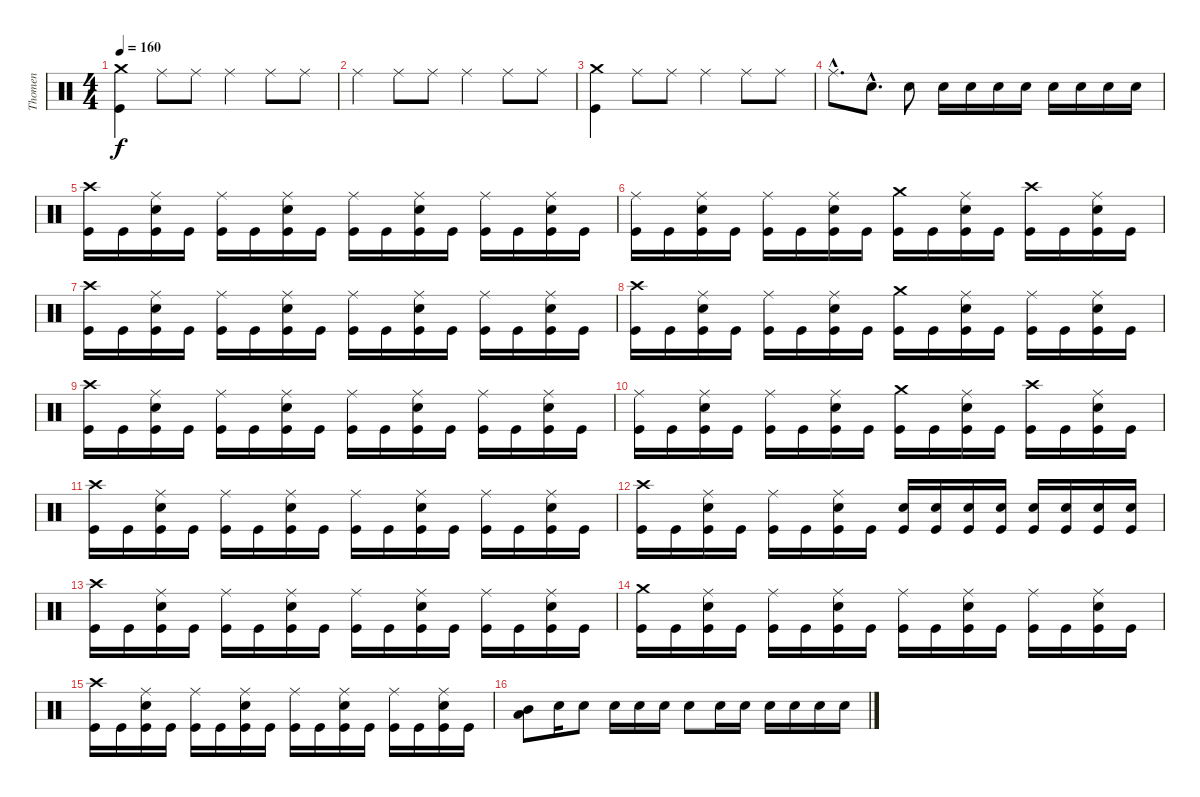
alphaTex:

\track ("Thomen" "Thomen") {instrument percussion}
\staff {score}
\articulation defaults
\ts (4 4)
\tempo 160
\clef neutral
\ks c
("Crash medium (hit)" "Kick (hit)").4{dy f} "Ride (middle)".8 "Ride (middle)".8 "Ride (middle)".4 "Ride (middle)".8 "Ride (middle)".8 |
"Ride (middle)".4 "Ride (middle)".8 "Ride (middle)".8 "Ride (middle)".4 "Ride (middle)".8 "Ride (middle)".8 |
("Crash medium (hit)" "Kick (hit)").4 "Ride (middle)".8 "Ride (middle)".8 "Ride (middle)".4 "Ride (middle)".8 "Ride (middle)".8 |
"Ride (middle)"{hac}.8{d} "Snare (hit) 2"{hac}.8{d} "Snare (hit) 2".8 "Snare (hit) 2".16 "Snare (hit) 2".16 "Snare (hit) 2".16 "Snare (hit) 2".16 "Snare (hit) 2".16 "Snare (hit) 2".16 "Snare (hit) 2".16 "Snare (hit) 2".16 |
("Crash high (hit)" "Kick (hit)").16 "Kick (hit)".16 ("Ride (middle)" "Snare (hit) 2" "Kick (hit)").16 "Kick (hit)".16 ("Ride (middle)" "Kick (hit)").16 "Kick (hit)".16 ("Ride (middle)" "Snare (hit) 2" "Kick (hit)").16 "Kick (hit)".16 ("Ride (middle)" "Kick (hit)").16 "Kick (hit)".16 ("Ride (middle)" "Snare (hit) 2" "Kick (hit)").16 "Kick (hit)".16 ("Ride (middle)" "Kick (hit)").16 "Kick (hit)".16 ("Ride (middle)" "Snare (hit) 2" "Kick (hit)").16 "Kick (hit)".16 |
("Ride (middle)" "Kick (hit)").16 "Kick (hit)".16 ("Ride (middle)" "Snare (hit) 2" "Kick (hit)").16 "Kick (hit)".16 ("Ride (middle)" "Kick (hit)").16 "Kick (hit)".16 ("Ride (middle)" "Snare (hit) 2" "Kick (hit)").16 "Kick (hit)".16 ("Crash medium (hit)" "Kick (hit)").16 "Kick (hit)".16 ("Ride (middle)" "Snare (hit) 2" "Kick (hit)").16 "Kick (hit)".16 ("Crash high (hit)" "Kick (hit)").16 "Kick (hit)".16 ("Ride (middle)" "Snare (hit) 2" "Kick (hit)").16 "Kick (hit)".16 |
("Crash high (hit)" "Kick (hit)").16 "Kick (hit)".16 ("Ride (middle)" "Snare (hit) 2" "Kick (hit)").16 "Kick (hit)".16 ("Ride (middle)" "Kick (hit)").16 "Kick (hit)".16 ("Ride (middle)" "Snare (hit) 2" "Kick (hit)").16 "Kick (hit)".16 ("Ride (middle)" "Kick (hit)").16 "Kick (hit)".16 ("Ride (middle)" "Snare (hit) 2" "Kick (hit)").16 "Kick (hit)".16 ("Ride (middle)" "Kick (hit)").16 "Kick (hit)".16 ("Ride (middle)" "Snare (hit) 2" "Kick (hit)").16 "Kick (hit)".16 |
("Crash high (hit)" "Kick (hit)").16 "Kick (hit)".16 ("Ride (middle)" "Snare (hit) 2" "Kick (hit)").16 "Kick (hit)".16 ("Ride (middle)" "Kick (hit)").16 "Kick (hit)".16 ("Ride (middle)" "Snare (hit) 2" "Kick (hit)").16 "Kick (hit)".16 ("Crash medium (hit)" "Kick (hit)").16 "Kick (hit)".16 ("Ride (middle)" "Snare (hit) 2" "Kick (hit)").16 "Kick (hit)".16 ("Ride (middle)" "Kick (hit)").16 "Kick (hit)".16 ("Ride (middle)" "Snare (hit) 2" "Kick (hit)").16 "Kick (hit)".16 |
("Crash high (hit)" "Kick (hit)").16 "Kick (hit)".16 ("Ride (middle)" "Snare (hit) 2" "Kick (hit)").16 "Kick (hit)".16 ("Ride (middle)" "Kick (hit)").16 "Kick (hit)".16 ("Ride (middle)" "Snare (hit) 2" "Kick (hit)").16 "Kick (hit)".16 ("Ride (middle)" "Kick (hit)").16 "Kick (hit)".16 ("Ride (middle)" "Snare (hit) 2" "Kick (hit)").16 "Kick (hit)".16 ("Ride (middle)" "Kick (hit)").16 "Kick (hit)".16 ("Ride (middle)" "Snare (hit) 2" "Kick (hit)").16 "Kick (hit)".16 |
("Ride (middle)" "Kick (hit)").16 "Kick (hit)".16 ("Ride (middle)" "Snare (hit) 2" "Kick (hit)").16 "Kick (hit)".16 ("Ride (middle)" "Kick (hit)").16 "Kick (hit)".16 ("Ride (middle)" "Snare (hit) 2" "Kick (hit)").16 "Kick (hit)".16 ("Crash medium (hit)" "Kick (hit)").16 "Kick (hit)".16 ("Ride (middle)" "Snare (hit) 2" "Kick (hit)").16 "Kick (hit)".16 ("Crash high (hit)" "Kick (hit)").16 "Kick (hit)".16 ("Ride (middle)" "Snare (hit) 2" "Kick (hit)").16 "Kick (hit)".16 |
("Crash high (hit)" "Kick (hit)").16 "Kick (hit)".16 ("Ride (middle)" "Snare (hit) 2" "Kick (hit)").16 "Kick (hit)".16 ("Ride (middle)" "Kick (hit)").16 "Kick (hit)".16 ("Ride (middle)" "Snare (hit) 2" "Kick (hit)").16 "Kick (hit)".16 ("Ride (middle)" "Kick (hit)").16 "Kick (hit)".16 ("Ride (middle)" "Snare (hit) 2" "Kick (hit)").16 "Kick (hit)".16 ("Ride (middle)" "Kick (hit)").16 "Kick (hit)".16 ("Ride (middle)" "Snare (hit) 2" "Kick (hit)").16 "Kick (hit)".16 |
("Crash high (hit)" "Kick (hit)").16 "Kick (hit)".16 ("Ride (middle)" "Snare (hit) 2" "Kick (hit)").16 "Kick (hit)".16 ("Ride (middle)" "Kick (hit)").16 "Kick (hit)".16 ("Ride (middle)" "Snare (hit) 2" "Kick (hit)").16 "Kick (hit)".16 ("Snare (hit) 2" "Kick (hit)").16 ("Snare (hit) 2" "Kick (hit)").16 ("Snare (hit) 2" "Kick (hit)").16 ("Snare (hit) 2" "Kick (hit)").16 ("Snare (hit) 2" "Kick (hit)").16 ("Snare (hit) 2" "Kick (hit)").16 ("Snare (hit) 2" "Kick (hit)").16 ("Snare (hit) 2" "Kick (hit)").16 |
("Crash high (hit)" "Kick (hit)").16 "Kick (hit)".16 ("Ride (middle)" "Snare (hit) 2" "Kick (hit)").16 "Kick (hit)".16 ("Ride (middle)" "Kick (hit)").16 "Kick (hit)".16 ("Ride (middle)" "Snare (hit) 2" "Kick (hit)").16 "Kick (hit)".16 ("Ride (middle)" "Kick (hit)").16 "Kick (hit)".16 ("Ride (middle)" "Snare (hit) 2" "Kick (hit)").16 "Kick (hit)".16 ("Ride (middle)" "Kick (hit)").16 "Kick (hit)".16 ("Ride (middle)" "Snare (hit) 2" "Kick (hit)").16 "Kick (hit)".16 |
("Crash medium (hit)" "Kick (hit)").16 "Kick (hit)".16 ("Ride (middle)" "Snare (hit) 2" "Kick (hit)").16 "Kick (hit)".16 ("Ride (middle)" "Kick (hit)").16 "Kick (hit)".16 ("Ride (middle)" "Snare (hit) 2" "Kick (hit)").16 "Kick (hit)".16 ("Ride (middle)" "Kick (hit)").16 "Kick (hit)".16 ("Ride (middle)" "Snare (hit) 2" "Kick (hit)").16 "Kick (hit)".16 ("Ride (middle)" "Kick (hit)").16 "Kick (hit)".16 ("Ride (middle)" "Snare (hit) 2" "Kick (hit)").16 "Kick (hit)".16 |
("Crash high (hit)" "Kick (hit)").16 "Kick (hit)".16 ("Ride (middle)" "Snare (hit) 2" "Kick (hit)").16 "Kick (hit)".16 ("Ride (middle)" "Kick (hit)").16 "Kick (hit)".16 ("Ride (middle)" "Snare (hit) 2" "Kick (hit)").16 "Kick (hit)".16 ("Ride (middle)" "Kick (hit)").16 "Kick (hit)".16 ("Ride (middle)" "Snare (hit) 2" "Kick (hit)").16 "Kick (hit)".16 ("Ride (middle)" "Kick (hit)").16 "Kick (hit)".16 ("Ride (middle)" "Snare (hit) 2" "Kick (hit)").16 "Kick (hit)".16 |
("Low Tom (hit)" "Mid Tom (hit)").8 "Snare (hit) 2".16 "Snare (hit) 2".8 "Snare (hit) 2".16 "Snare (hit) 2".16 "Snare (hit) 2".16 "Snare (hit) 2".8 "Snare (hit) 2".16 "Snare (hit) 2".16 "Snare (hit) 2".16 "Snare (hit) 2".16 "Snare (hit) 2".16 "Snare (hit) 2".16
